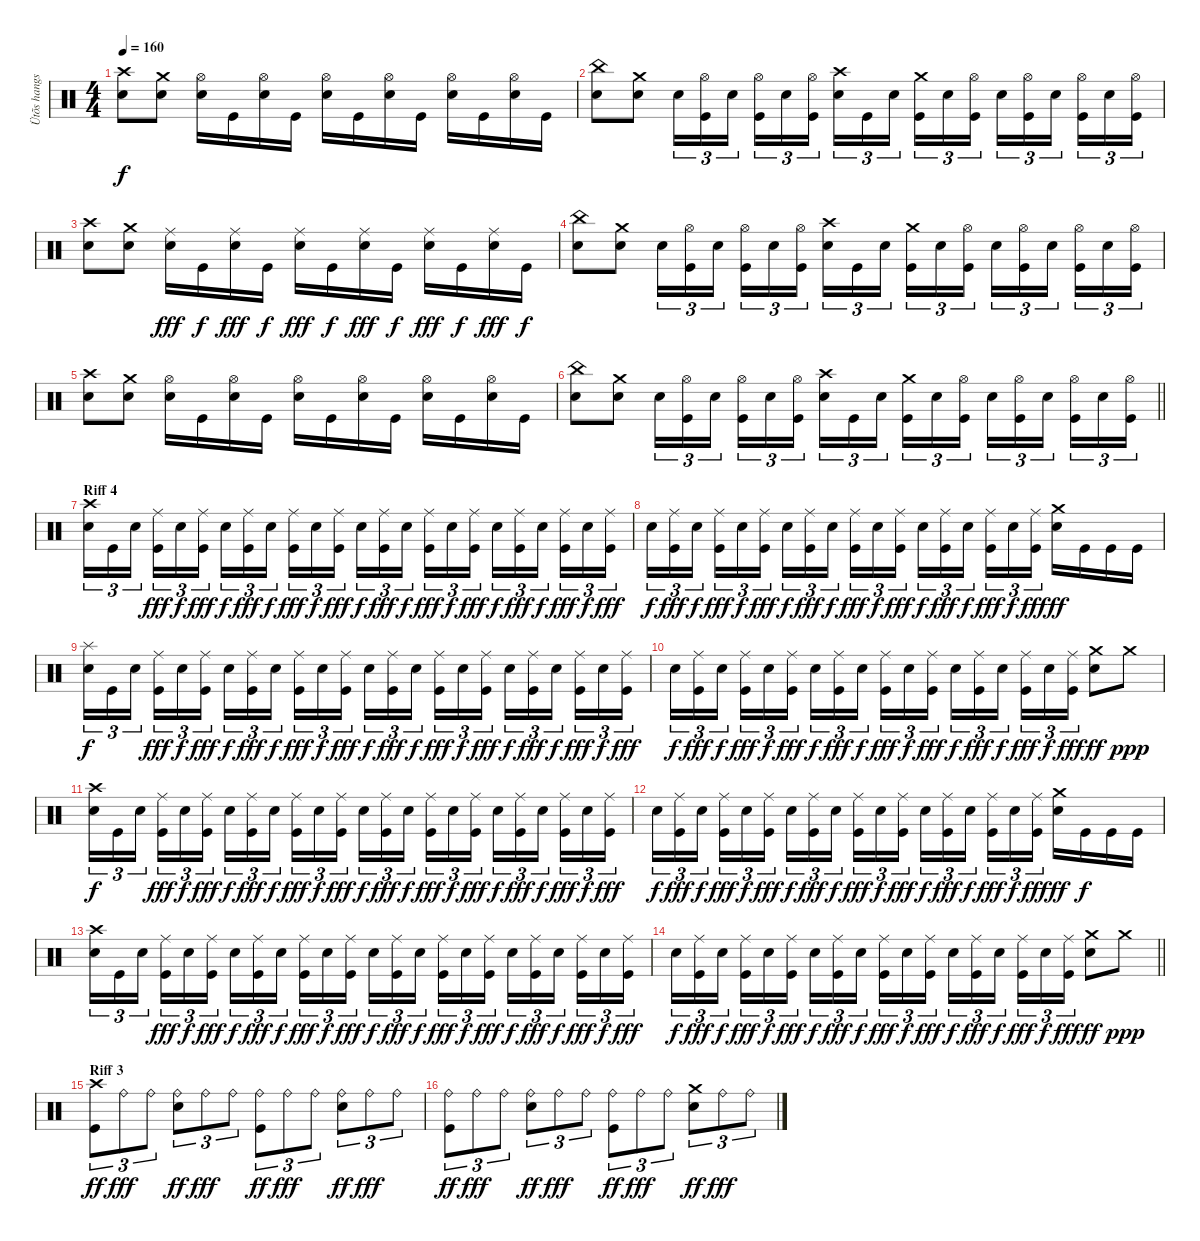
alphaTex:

\track ("Ütõs hangszer" "Ütõs hangs") {instrument percussion}
\staff {score}
\articulation defaults
\ts (4 4)
\tempo 160
\clef neutral
\ks c
("Crash high (hit)" "Electric Snare (hit)").8{dy f} ("Crash medium (hit)" "Electric Snare (hit)").8 ("Hi-Hat (open)" "Electric Snare (hit)").16 "Kick (hit)".16 ("Hi-Hat (open)" "Electric Snare (hit)").16 "Kick (hit)".16 ("Hi-Hat (open)" "Electric Snare (hit)").16 "Kick (hit)".16 ("Hi-Hat (open)" "Electric Snare (hit)").16 "Kick (hit)".16 ("Hi-Hat (open)" "Electric Snare (hit)").16 "Kick (hit)".16 ("Hi-Hat (open)" "Electric Snare (hit)").16 "Kick (hit)".16 |
("China (hit)" "Electric Snare (hit)").8 ("Crash medium (hit)" "Electric Snare (hit)").8 "Electric Snare (hit)".16{tu (3 2)} ("Hi-Hat (open)" "Kick (hit)").16{tu (3 2)} "Electric Snare (hit)".16{tu (3 2) beam splitsecondary} ("Hi-Hat (open)" "Kick (hit)").16{tu (3 2)} "Electric Snare (hit)".16{tu (3 2)} ("Hi-Hat (open)" "Kick (hit)").16{tu (3 2)} ("Crash high (hit)" "Electric Snare (hit)").16{tu (3 2)} "Kick (hit)".16{tu (3 2)} "Electric Snare (hit)".16{tu (3 2) beam splitsecondary} ("Crash medium (hit)" "Kick (hit)").16{tu (3 2)} "Electric Snare (hit)".16{tu (3 2)} ("Hi-Hat (open)" "Kick (hit)").16{tu (3 2)} "Electric Snare (hit)".16{tu (3 2)} ("Hi-Hat (open)" "Kick (hit)").16{tu (3 2)} "Electric Snare (hit)".16{tu (3 2) beam splitsecondary} ("Hi-Hat (open)" "Kick (hit)").16{tu (3 2)} "Electric Snare (hit)".16{tu (3 2)} ("Hi-Hat (open)" "Kick (hit)").16{tu (3 2)} |
("Crash high (hit)" "Electric Snare (hit)").8 ("Crash medium (hit)" "Electric Snare (hit)").8 ("Ride (middle)" "Electric Snare (hit)").16{dy fff} "Kick (hit)".16{dy f} ("Ride (middle)" "Electric Snare (hit)").16{dy fff} "Kick (hit)".16{dy f} ("Ride (middle)" "Electric Snare (hit)").16{dy fff} "Kick (hit)".16{dy f} ("Ride (middle)" "Electric Snare (hit)").16{dy fff} "Kick (hit)".16{dy f} ("Ride (middle)" "Electric Snare (hit)").16{dy fff} "Kick (hit)".16{dy f} ("Ride (middle)" "Electric Snare (hit)").16{dy fff} "Kick (hit)".16{dy f} |
("China (hit)" "Electric Snare (hit)").8 ("Crash medium (hit)" "Electric Snare (hit)").8 "Electric Snare (hit)".16{tu (3 2)} ("Hi-Hat (open)" "Kick (hit)").16{tu (3 2)} "Electric Snare (hit)".16{tu (3 2) beam splitsecondary} ("Hi-Hat (open)" "Kick (hit)").16{tu (3 2)} "Electric Snare (hit)".16{tu (3 2)} ("Hi-Hat (open)" "Kick (hit)").16{tu (3 2)} ("Crash high (hit)" "Electric Snare (hit)").16{tu (3 2)} "Kick (hit)".16{tu (3 2)} "Electric Snare (hit)".16{tu (3 2) beam splitsecondary} ("Crash medium (hit)" "Kick (hit)").16{tu (3 2)} "Electric Snare (hit)".16{tu (3 2)} ("Hi-Hat (open)" "Kick (hit)").16{tu (3 2)} "Electric Snare (hit)".16{tu (3 2)} ("Hi-Hat (open)" "Kick (hit)").16{tu (3 2)} "Electric Snare (hit)".16{tu (3 2) beam splitsecondary} ("Hi-Hat (open)" "Kick (hit)").16{tu (3 2)} "Electric Snare (hit)".16{tu (3 2)} ("Hi-Hat (open)" "Kick (hit)").16{tu (3 2)} |
("Crash high (hit)" "Electric Snare (hit)").8 ("Crash medium (hit)" "Electric Snare (hit)").8 ("Hi-Hat (open)" "Electric Snare (hit)").16 "Kick (hit)".16 ("Hi-Hat (open)" "Electric Snare (hit)").16 "Kick (hit)".16 ("Hi-Hat (open)" "Electric Snare (hit)").16 "Kick (hit)".16 ("Hi-Hat (open)" "Electric Snare (hit)").16 "Kick (hit)".16 ("Hi-Hat (open)" "Electric Snare (hit)").16 "Kick (hit)".16 ("Hi-Hat (open)" "Electric Snare (hit)").16 "Kick (hit)".16 |
\barLineRight lightlight
("China (hit)" "Electric Snare (hit)").8 ("Crash medium (hit)" "Electric Snare (hit)").8 "Electric Snare (hit)".16{tu (3 2)} ("Hi-Hat (open)" "Kick (hit)").16{tu (3 2)} "Electric Snare (hit)".16{tu (3 2) beam splitsecondary} ("Hi-Hat (open)" "Kick (hit)").16{tu (3 2)} "Electric Snare (hit)".16{tu (3 2)} ("Hi-Hat (open)" "Kick (hit)").16{tu (3 2)} ("Crash high (hit)" "Electric Snare (hit)").16{tu (3 2)} "Kick (hit)".16{tu (3 2)} "Electric Snare (hit)".16{tu (3 2) beam splitsecondary} ("Crash medium (hit)" "Kick (hit)").16{tu (3 2)} "Electric Snare (hit)".16{tu (3 2)} ("Hi-Hat (open)" "Kick (hit)").16{tu (3 2)} "Electric Snare (hit)".16{tu (3 2)} ("Hi-Hat (open)" "Kick (hit)").16{tu (3 2)} "Electric Snare (hit)".16{tu (3 2) beam splitsecondary} ("Hi-Hat (open)" "Kick (hit)").16{tu (3 2)} "Electric Snare (hit)".16{tu (3 2)} ("Hi-Hat (open)" "Kick (hit)").16{tu (3 2)} |
\section ("" "Riff 4")
("Crash high (hit)" "Electric Snare (hit)").16{tu (3 2)} "Kick (hit)".16{tu (3 2)} "Electric Snare (hit)".16{tu (3 2) beam splitsecondary} ("Ride (middle)" "Kick (hit)").16{tu (3 2) dy fff} "Electric Snare (hit)".16{tu (3 2) dy f} ("Ride (middle)" "Kick (hit)").16{tu (3 2) dy fff} "Electric Snare (hit)".16{tu (3 2) dy f} ("Ride (middle)" "Kick (hit)").16{tu (3 2) dy fff} "Electric Snare (hit)".16{tu (3 2) dy f beam splitsecondary} ("Ride (middle)" "Kick (hit)").16{tu (3 2) dy fff} "Electric Snare (hit)".16{tu (3 2) dy f} ("Ride (middle)" "Kick (hit)").16{tu (3 2) dy fff} "Electric Snare (hit)".16{tu (3 2) dy f} ("Ride (middle)" "Kick (hit)").16{tu (3 2) dy fff} "Electric Snare (hit)".16{tu (3 2) dy f beam splitsecondary} ("Ride (middle)" "Kick (hit)").16{tu (3 2) dy fff} "Electric Snare (hit)".16{tu (3 2) dy f} ("Ride (middle)" "Kick (hit)").16{tu (3 2) dy fff} "Electric Snare (hit)".16{tu (3 2) dy f} ("Ride (middle)" "Kick (hit)").16{tu (3 2) dy fff} "Electric Snare (hit)".16{tu (3 2) dy f beam splitsecondary} ("Ride (middle)" "Kick (hit)").16{tu (3 2) dy fff} "Electric Snare (hit)".16{tu (3 2) dy f} ("Ride (middle)" "Kick (hit)").16{tu (3 2) dy fff} |
"Electric Snare (hit)".16{tu (3 2) dy f} ("Ride (middle)" "Kick (hit)").16{tu (3 2) dy fff} "Electric Snare (hit)".16{tu (3 2) dy f beam splitsecondary} ("Ride (middle)" "Kick (hit)").16{tu (3 2) dy fff} "Electric Snare (hit)".16{tu (3 2) dy f} ("Ride (middle)" "Kick (hit)").16{tu (3 2) dy fff} "Electric Snare (hit)".16{tu (3 2) dy f} ("Ride (middle)" "Kick (hit)").16{tu (3 2) dy fff} "Electric Snare (hit)".16{tu (3 2) dy f beam splitsecondary} ("Ride (middle)" "Kick (hit)").16{tu (3 2) dy fff} "Electric Snare (hit)".16{tu (3 2) dy f} ("Ride (middle)" "Kick (hit)").16{tu (3 2) dy fff} "Electric Snare (hit)".16{tu (3 2) dy f} ("Ride (middle)" "Kick (hit)").16{tu (3 2) dy fff} "Electric Snare (hit)".16{tu (3 2) dy f beam splitsecondary} ("Ride (middle)" "Kick (hit)").16{tu (3 2) dy fff} "Electric Snare (hit)".16{tu (3 2) dy f} ("Ride (middle)" "Kick (hit)").16{tu (3 2) dy fff} ("Crash medium (hit)" "Electric Snare (hit)").16{dy ff} "Kick (hit)".16 "Kick (hit)".16 "Kick (hit)".16 |
("Splash (hit)" "Electric Snare (hit)").16{tu (3 2) dy f} "Kick (hit)".16{tu (3 2)} "Electric Snare (hit)".16{tu (3 2) beam splitsecondary} ("Ride (middle)" "Kick (hit)").16{tu (3 2) dy fff} "Electric Snare (hit)".16{tu (3 2) dy f} ("Ride (middle)" "Kick (hit)").16{tu (3 2) dy fff} "Electric Snare (hit)".16{tu (3 2) dy f} ("Ride (middle)" "Kick (hit)").16{tu (3 2) dy fff} "Electric Snare (hit)".16{tu (3 2) dy f beam splitsecondary} ("Ride (middle)" "Kick (hit)").16{tu (3 2) dy fff} "Electric Snare (hit)".16{tu (3 2) dy f} ("Ride (middle)" "Kick (hit)").16{tu (3 2) dy fff} "Electric Snare (hit)".16{tu (3 2) dy f} ("Ride (middle)" "Kick (hit)").16{tu (3 2) dy fff} "Electric Snare (hit)".16{tu (3 2) dy f beam splitsecondary} ("Ride (middle)" "Kick (hit)").16{tu (3 2) dy fff} "Electric Snare (hit)".16{tu (3 2) dy f} ("Ride (middle)" "Kick (hit)").16{tu (3 2) dy fff} "Electric Snare (hit)".16{tu (3 2) dy f} ("Ride (middle)" "Kick (hit)").16{tu (3 2) dy fff} "Electric Snare (hit)".16{tu (3 2) dy f beam splitsecondary} ("Ride (middle)" "Kick (hit)").16{tu (3 2) dy fff} "Electric Snare (hit)".16{tu (3 2) dy f} ("Ride (middle)" "Kick (hit)").16{tu (3 2) dy fff} |
"Electric Snare (hit)".16{tu (3 2) dy f} ("Ride (middle)" "Kick (hit)").16{tu (3 2) dy fff} "Electric Snare (hit)".16{tu (3 2) dy f beam splitsecondary} ("Ride (middle)" "Kick (hit)").16{tu (3 2) dy fff} "Electric Snare (hit)".16{tu (3 2) dy f} ("Ride (middle)" "Kick (hit)").16{tu (3 2) dy fff} "Electric Snare (hit)".16{tu (3 2) dy f} ("Ride (middle)" "Kick (hit)").16{tu (3 2) dy fff} "Electric Snare (hit)".16{tu (3 2) dy f beam splitsecondary} ("Ride (middle)" "Kick (hit)").16{tu (3 2) dy fff} "Electric Snare (hit)".16{tu (3 2) dy f} ("Ride (middle)" "Kick (hit)").16{tu (3 2) dy fff} "Electric Snare (hit)".16{tu (3 2) dy f} ("Ride (middle)" "Kick (hit)").16{tu (3 2) dy fff} "Electric Snare (hit)".16{tu (3 2) dy f beam splitsecondary} ("Ride (middle)" "Kick (hit)").16{tu (3 2) dy fff} "Electric Snare (hit)".16{tu (3 2) dy f} ("Ride (middle)" "Kick (hit)").16{tu (3 2) dy fff} ("Crash medium (hit)" "Electric Snare (hit)").8{dy ff} "Crash medium (hit)".8{dy ppp} |
("Crash high (hit)" "Electric Snare (hit)").16{tu (3 2) dy f} "Kick (hit)".16{tu (3 2)} "Electric Snare (hit)".16{tu (3 2) beam splitsecondary} ("Ride (middle)" "Kick (hit)").16{tu (3 2) dy fff} "Electric Snare (hit)".16{tu (3 2) dy f} ("Ride (middle)" "Kick (hit)").16{tu (3 2) dy fff} "Electric Snare (hit)".16{tu (3 2) dy f} ("Ride (middle)" "Kick (hit)").16{tu (3 2) dy fff} "Electric Snare (hit)".16{tu (3 2) dy f beam splitsecondary} ("Ride (middle)" "Kick (hit)").16{tu (3 2) dy fff} "Electric Snare (hit)".16{tu (3 2) dy f} ("Ride (middle)" "Kick (hit)").16{tu (3 2) dy fff} "Electric Snare (hit)".16{tu (3 2) dy f} ("Ride (middle)" "Kick (hit)").16{tu (3 2) dy fff} "Electric Snare (hit)".16{tu (3 2) dy f beam splitsecondary} ("Ride (middle)" "Kick (hit)").16{tu (3 2) dy fff} "Electric Snare (hit)".16{tu (3 2) dy f} ("Ride (middle)" "Kick (hit)").16{tu (3 2) dy fff} "Electric Snare (hit)".16{tu (3 2) dy f} ("Ride (middle)" "Kick (hit)").16{tu (3 2) dy fff} "Electric Snare (hit)".16{tu (3 2) dy f beam splitsecondary} ("Ride (middle)" "Kick (hit)").16{tu (3 2) dy fff} "Electric Snare (hit)".16{tu (3 2) dy f} ("Ride (middle)" "Kick (hit)").16{tu (3 2) dy fff} |
"Electric Snare (hit)".16{tu (3 2) dy f} ("Ride (middle)" "Kick (hit)").16{tu (3 2) dy fff} "Electric Snare (hit)".16{tu (3 2) dy f beam splitsecondary} ("Ride (middle)" "Kick (hit)").16{tu (3 2) dy fff} "Electric Snare (hit)".16{tu (3 2) dy f} ("Ride (middle)" "Kick (hit)").16{tu (3 2) dy fff} "Electric Snare (hit)".16{tu (3 2) dy f} ("Ride (middle)" "Kick (hit)").16{tu (3 2) dy fff} "Electric Snare (hit)".16{tu (3 2) dy f beam splitsecondary} ("Ride (middle)" "Kick (hit)").16{tu (3 2) dy fff} "Electric Snare (hit)".16{tu (3 2) dy f} ("Ride (middle)" "Kick (hit)").16{tu (3 2) dy fff} "Electric Snare (hit)".16{tu (3 2) dy f} ("Ride (middle)" "Kick (hit)").16{tu (3 2) dy fff} "Electric Snare (hit)".16{tu (3 2) dy f beam splitsecondary} ("Ride (middle)" "Kick (hit)").16{tu (3 2) dy fff} "Electric Snare (hit)".16{tu (3 2) dy f} ("Ride (middle)" "Kick (hit)").16{tu (3 2) dy fff} ("Crash medium (hit)" "Electric Snare (hit)").16{dy ff} "Kick (hit)".16{dy f} "Kick (hit)".16 "Kick (hit)".16 |
("Crash high (hit)" "Electric Snare (hit)").16{tu (3 2)} "Kick (hit)".16{tu (3 2)} "Electric Snare (hit)".16{tu (3 2) beam splitsecondary} ("Ride (middle)" "Kick (hit)").16{tu (3 2) dy fff} "Electric Snare (hit)".16{tu (3 2) dy f} ("Ride (middle)" "Kick (hit)").16{tu (3 2) dy fff} "Electric Snare (hit)".16{tu (3 2) dy f} ("Ride (middle)" "Kick (hit)").16{tu (3 2) dy fff} "Electric Snare (hit)".16{tu (3 2) dy f beam splitsecondary} ("Ride (middle)" "Kick (hit)").16{tu (3 2) dy fff} "Electric Snare (hit)".16{tu (3 2) dy f} ("Ride (middle)" "Kick (hit)").16{tu (3 2) dy fff} "Electric Snare (hit)".16{tu (3 2) dy f} ("Ride (middle)" "Kick (hit)").16{tu (3 2) dy fff} "Electric Snare (hit)".16{tu (3 2) dy f beam splitsecondary} ("Ride (middle)" "Kick (hit)").16{tu (3 2) dy fff} "Electric Snare (hit)".16{tu (3 2) dy f} ("Ride (middle)" "Kick (hit)").16{tu (3 2) dy fff} "Electric Snare (hit)".16{tu (3 2) dy f} ("Ride (middle)" "Kick (hit)").16{tu (3 2) dy fff} "Electric Snare (hit)".16{tu (3 2) dy f beam splitsecondary} ("Ride (middle)" "Kick (hit)").16{tu (3 2) dy fff} "Electric Snare (hit)".16{tu (3 2) dy f} ("Ride (middle)" "Kick (hit)").16{tu (3 2) dy fff} |
\barLineRight lightlight "Electric Snare (hit)".16{tu (3 2) dy f}
("Ride (middle)" "Kick (hit)").16{tu (3 2) dy fff} "Electric Snare (hit)".16{tu (3 2) dy f beam splitsecondary} ("Ride (middle)" "Kick (hit)").16{tu (3 2) dy fff} "Electric Snare (hit)".16{tu (3 2) dy f} ("Ride (middle)" "Kick (hit)").16{tu (3 2) dy fff} "Electric Snare (hit)".16{tu (3 2) dy f} ("Ride (middle)" "Kick (hit)").16{tu (3 2) dy fff} "Electric Snare (hit)".16{tu (3 2) dy f beam splitsecondary} ("Ride (middle)" "Kick (hit)").16{tu (3 2) dy fff} "Electric Snare (hit)".16{tu (3 2) dy f} ("Ride (middle)" "Kick (hit)").16{tu (3 2) dy fff} "Electric Snare (hit)".16{tu (3 2) dy f} ("Ride (middle)" "Kick (hit)").16{tu (3 2) dy fff} "Electric Snare (hit)".16{tu (3 2) dy f beam splitsecondary} ("Ride (middle)" "Kick (hit)").16{tu (3 2) dy fff} "Electric Snare (hit)".16{tu (3 2) dy f} ("Ride (middle)" "Kick (hit)").16{tu (3 2) dy fff} ("Crash medium (hit)" "Electric Snare (hit)").8{dy ff} "Crash medium (hit)".8{dy ppp} |
\section ("" "Riff 3")
("Crash high (hit)" "Kick (hit)").8{tu (3 2) dy ff} "Ride (bell)".8{tu (3 2) dy fff} "Ride (bell)".8{tu (3 2)} ("Ride (bell)" "Electric Snare (hit)").8{tu (3 2) dy ff} "Ride (bell)".8{tu (3 2) dy fff} "Ride (bell)".8{tu (3 2)} ("Ride (bell)" "Kick (hit)").8{tu (3 2) dy ff} "Ride (bell)".8{tu (3 2) dy fff} "Ride (bell)".8{tu (3 2)} ("Ride (bell)" "Electric Snare (hit)").8{tu (3 2) dy ff} "Ride (bell)".8{tu (3 2) dy fff} "Ride (bell)".8{tu (3 2)} |
("Ride (bell)" "Kick (hit)").8{tu (3 2) dy ff} "Ride (bell)".8{tu (3 2) dy fff} "Ride (bell)".8{tu (3 2)} ("Ride (bell)" "Electric Snare (hit)").8{tu (3 2) dy ff} "Ride (bell)".8{tu (3 2) dy fff} "Ride (bell)".8{tu (3 2)} ("Ride (bell)" "Kick (hit)").8{tu (3 2) dy ff} "Ride (bell)".8{tu (3 2) dy fff} "Ride (bell)".8{tu (3 2)} ("Crash medium (hit)" "Electric Snare (hit)").8{tu (3 2) dy ff} "Ride (bell)".8{tu (3 2) dy fff} "Ride (bell)".8{tu (3 2)}
